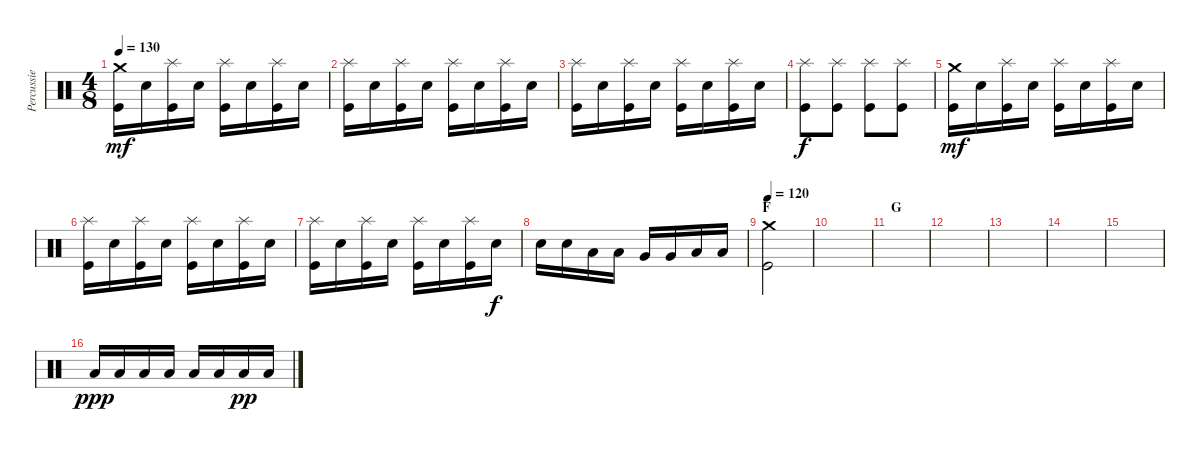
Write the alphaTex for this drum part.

\track ("Percussie" "Percussie") {instrument percussion}
\staff {score}
\articulation defaults
\ts (4 8)
\tempo 130
\clef neutral
\ks c
("Crash medium (hit)" "Kick (hit)").16{dy mf} "Electric Snare (hit)".16 ("Splash (hit)" "Kick (hit)").16 "Electric Snare (hit)".16 ("Splash (hit)" "Kick (hit)").16 "Electric Snare (hit)".16 ("Splash (hit)" "Kick (hit)").16 "Electric Snare (hit)".16 |
("Splash (hit)" "Kick (hit)").16 "Electric Snare (hit)".16 ("Splash (hit)" "Kick (hit)").16 "Electric Snare (hit)".16 ("Splash (hit)" "Kick (hit)").16 "Electric Snare (hit)".16 ("Splash (hit)" "Kick (hit)").16 "Electric Snare (hit)".16 |
("Splash (hit)" "Kick (hit)").16 "Electric Snare (hit)".16 ("Splash (hit)" "Kick (hit)").16 "Electric Snare (hit)".16 ("Splash (hit)" "Kick (hit)").16 "Electric Snare (hit)".16 ("Splash (hit)" "Kick (hit)").16 "Electric Snare (hit)".16 |
("Splash (hit)" "Kick (hit)").8{dy f} ("Splash (hit)" "Kick (hit)").8 ("Splash (hit)" "Kick (hit)").8 ("Splash (hit)" "Kick (hit)").8 |
("Crash medium (hit)" "Kick (hit)").16{dy mf} "Electric Snare (hit)".16 ("Splash (hit)" "Kick (hit)").16 "Electric Snare (hit)".16 ("Splash (hit)" "Kick (hit)").16 "Electric Snare (hit)".16 ("Splash (hit)" "Kick (hit)").16 "Electric Snare (hit)".16 |
("Splash (hit)" "Kick (hit)").16 "Electric Snare (hit)".16 ("Splash (hit)" "Kick (hit)").16 "Electric Snare (hit)".16 ("Splash (hit)" "Kick (hit)").16 "Electric Snare (hit)".16 ("Splash (hit)" "Kick (hit)").16 "Electric Snare (hit)".16 |
("Splash (hit)" "Kick (hit)").16 "Electric Snare (hit)".16 ("Splash (hit)" "Kick (hit)").16 "Electric Snare (hit)".16 ("Splash (hit)" "Kick (hit)").16 "Electric Snare (hit)".16 ("Splash (hit)" "Kick (hit)").16 "Electric Snare (hit)".16{dy f} |
"Electric Snare (hit)".16 "Electric Snare (hit)".16 "Low Tom (hit)".16 "Low Tom (hit)".16 "Very Low Tom (hit)".16 "Very Low Tom (hit)".16 "Low Floor Tom (hit)".16 "Low Floor Tom (hit)".16 |
\section ("" "F")
\tempo 120
("Crash medium (hit)" "Kick (hit)").2 |
|
\section ("" "G")
|
|
|
|
|
"Low Tom (hit)".16{dy ppp} "Low Tom (hit)".16 "Low Tom (hit)".16 "Low Tom (hit)".16 "Low Tom (hit)".16 "Low Tom (hit)".16 "Low Tom (hit)".16{dy pp} "Low Tom (hit)".16
